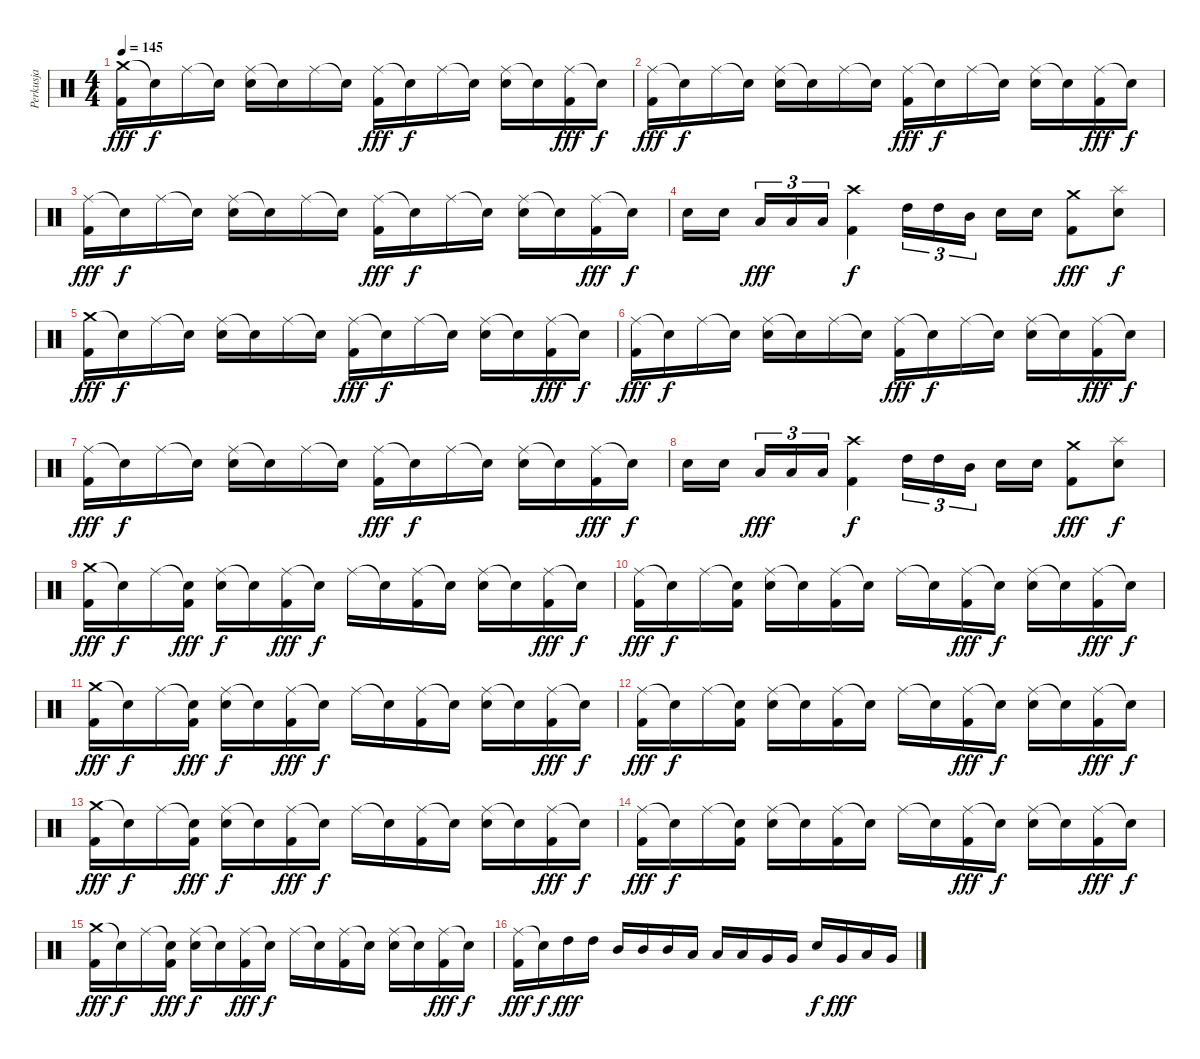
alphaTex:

\track ("Perkusja" "Perkusja") {instrument percussion}
\staff {score}
\articulation defaults
\ts (4 4)
\tempo 145
\clef neutral
\ks c
("Crash medium (hit)" "Kick (hit) 2").16{dy fff} "Snare (hit)"{t}.16{dy f} "Ride (middle)".16 "Snare (hit)"{t}.16 ("Ride (middle)" "Electric Snare (hit)").16 "Snare (hit)"{t}.16 "Ride (middle)".16 "Snare (hit)"{t}.16 ("Ride (middle)" "Kick (hit) 2").16{dy fff} "Snare (hit)"{t}.16{dy f} "Ride (middle)".16 "Snare (hit)"{t}.16 ("Ride (middle)" "Electric Snare (hit)").16 "Snare (hit)"{t}.16 ("Ride (middle)" "Kick (hit) 2").16{dy fff} "Snare (hit)"{t}.16{dy f} |
("Ride (middle)" "Kick (hit) 2").16{dy fff} "Snare (hit)"{t}.16{dy f} "Ride (middle)".16 "Snare (hit)"{t}.16 ("Ride (middle)" "Electric Snare (hit)").16 "Snare (hit)"{t}.16 "Ride (middle)".16 "Snare (hit)"{t}.16 ("Ride (middle)" "Kick (hit) 2").16{dy fff} "Snare (hit)"{t}.16{dy f} "Ride (middle)".16 "Snare (hit)"{t}.16 ("Ride (middle)" "Electric Snare (hit)").16 "Snare (hit)"{t}.16 ("Ride (middle)" "Kick (hit) 2").16{dy fff} "Snare (hit)"{t}.16{dy f} |
("Ride (middle)" "Kick (hit) 2").16{dy fff} "Snare (hit)"{t}.16{dy f} "Ride (middle)".16 "Snare (hit)"{t}.16 ("Ride (middle)" "Electric Snare (hit)").16 "Snare (hit)"{t}.16 "Ride (middle)".16 "Snare (hit)"{t}.16 ("Ride (middle)" "Kick (hit) 2").16{dy fff} "Snare (hit)"{t}.16{dy f} "Ride (middle)".16 "Snare (hit)"{t}.16 ("Ride (middle)" "Electric Snare (hit)").16 "Snare (hit)"{t}.16 ("Ride (middle)" "Kick (hit) 2").16{dy fff} "Snare (hit)"{t}.16{dy f} |
"Electric Snare (hit)".16 "Electric Snare (hit)".16 "Low Tom (hit)".16{tu (3 2) dy fff} "Low Tom (hit)".16{tu (3 2)} "Low Tom (hit)".16{tu (3 2)} ("Crash high (hit)" "Kick (hit) 2").4{dy f} "High Tom (hit)".16{tu (3 2)} "High Tom (hit)".16{tu (3 2)} "Mid Tom (hit)".16{tu (3 2)} "Electric Snare (hit)".16 "Electric Snare (hit)".16 ("Crash medium (hit)" "Kick (hit) 2").8{dy fff} ("Splash (hit)" "Electric Snare (hit)").8{dy f} |
("Crash medium (hit)" "Kick (hit) 2").16{dy fff} "Snare (hit)"{t}.16{dy f} "Ride (middle)".16 "Snare (hit)"{t}.16 ("Ride (middle)" "Electric Snare (hit)").16 "Snare (hit)"{t}.16 "Ride (middle)".16 "Snare (hit)"{t}.16 ("Ride (middle)" "Kick (hit) 2").16{dy fff} "Snare (hit)"{t}.16{dy f} "Ride (middle)".16 "Snare (hit)"{t}.16 ("Ride (middle)" "Electric Snare (hit)").16 "Snare (hit)"{t}.16 ("Ride (middle)" "Kick (hit) 2").16{dy fff} "Snare (hit)"{t}.16{dy f} |
("Ride (middle)" "Kick (hit) 2").16{dy fff} "Snare (hit)"{t}.16{dy f} "Ride (middle)".16 "Snare (hit)"{t}.16 ("Ride (middle)" "Electric Snare (hit)").16 "Snare (hit)"{t}.16 "Ride (middle)".16 "Snare (hit)"{t}.16 ("Ride (middle)" "Kick (hit) 2").16{dy fff} "Snare (hit)"{t}.16{dy f} "Ride (middle)".16 "Snare (hit)"{t}.16 ("Ride (middle)" "Electric Snare (hit)").16 "Snare (hit)"{t}.16 ("Ride (middle)" "Kick (hit) 2").16{dy fff} "Snare (hit)"{t}.16{dy f} |
("Ride (middle)" "Kick (hit) 2").16{dy fff} "Snare (hit)"{t}.16{dy f} "Ride (middle)".16 "Snare (hit)"{t}.16 ("Ride (middle)" "Electric Snare (hit)").16 "Snare (hit)"{t}.16 "Ride (middle)".16 "Snare (hit)"{t}.16 ("Ride (middle)" "Kick (hit) 2").16{dy fff} "Snare (hit)"{t}.16{dy f} "Ride (middle)".16 "Snare (hit)"{t}.16 ("Ride (middle)" "Electric Snare (hit)").16 "Snare (hit)"{t}.16 ("Ride (middle)" "Kick (hit) 2").16{dy fff} "Snare (hit)"{t}.16{dy f} |
"Electric Snare (hit)".16 "Electric Snare (hit)".16 "Low Tom (hit)".16{tu (3 2) dy fff} "Low Tom (hit)".16{tu (3 2)} "Low Tom (hit)".16{tu (3 2)} ("Crash high (hit)" "Kick (hit) 2").4{dy f} "High Tom (hit)".16{tu (3 2)} "High Tom (hit)".16{tu (3 2)} "Mid Tom (hit)".16{tu (3 2)} "Electric Snare (hit)".16 "Electric Snare (hit)".16 ("Crash medium (hit)" "Kick (hit) 2").8{dy fff} ("Splash (hit)" "Electric Snare (hit)").8{dy f} |
("Crash medium (hit)" "Kick (hit) 2").16{dy fff} "Snare (hit)"{t}.16{dy f} "Ride (middle)".16 ("Snare (hit)"{t} "Kick (hit) 2").16{dy fff} ("Ride (middle)" "Electric Snare (hit)").16{dy f} "Snare (hit)"{t}.16 ("Ride (middle)" "Kick (hit) 2").16{dy fff} "Snare (hit)"{t}.16{dy f} "Ride (middle)".16 "Snare (hit)"{t}.16 ("Ride (middle)" "Kick (hit) 2").16 "Snare (hit)"{t}.16 ("Ride (middle)" "Electric Snare (hit)").16 "Snare (hit)"{t}.16 ("Ride (middle)" "Kick (hit) 2").16{dy fff} "Snare (hit)"{t}.16{dy f} |
("Ride (middle)" "Kick (hit) 2").16{dy fff} "Snare (hit)"{t}.16{dy f} "Ride (middle)".16 ("Snare (hit)"{t} "Kick (hit) 2").16 ("Ride (middle)" "Electric Snare (hit)").16 "Snare (hit)"{t}.16 ("Ride (middle)" "Kick (hit) 2").16 "Snare (hit)"{t}.16 "Ride (middle)".16 "Snare (hit)"{t}.16 ("Ride (middle)" "Kick (hit) 2").16{dy fff} "Snare (hit)"{t}.16{dy f} ("Ride (middle)" "Electric Snare (hit)").16 "Snare (hit)"{t}.16 ("Ride (middle)" "Kick (hit) 2").16{dy fff} "Snare (hit)"{t}.16{dy f} |
("Crash medium (hit)" "Kick (hit) 2").16{dy fff} "Snare (hit)"{t}.16{dy f} "Ride (middle)".16 ("Snare (hit)"{t} "Kick (hit) 2").16{dy fff} ("Ride (middle)" "Electric Snare (hit)").16{dy f} "Snare (hit)"{t}.16 ("Ride (middle)" "Kick (hit) 2").16{dy fff} "Snare (hit)"{t}.16{dy f} "Ride (middle)".16 "Snare (hit)"{t}.16 ("Ride (middle)" "Kick (hit) 2").16 "Snare (hit)"{t}.16 ("Ride (middle)" "Electric Snare (hit)").16 "Snare (hit)"{t}.16 ("Ride (middle)" "Kick (hit) 2").16{dy fff} "Snare (hit)"{t}.16{dy f} |
("Ride (middle)" "Kick (hit) 2").16{dy fff} "Snare (hit)"{t}.16{dy f} "Ride (middle)".16 ("Snare (hit)"{t} "Kick (hit) 2").16 ("Ride (middle)" "Electric Snare (hit)").16 "Snare (hit)"{t}.16 ("Ride (middle)" "Kick (hit) 2").16 "Snare (hit)"{t}.16 "Ride (middle)".16 "Snare (hit)"{t}.16 ("Ride (middle)" "Kick (hit) 2").16{dy fff} "Snare (hit)"{t}.16{dy f} ("Ride (middle)" "Electric Snare (hit)").16 "Snare (hit)"{t}.16 ("Ride (middle)" "Kick (hit) 2").16{dy fff} "Snare (hit)"{t}.16{dy f} |
("Crash medium (hit)" "Kick (hit) 2").16{dy fff} "Snare (hit)"{t}.16{dy f} "Ride (middle)".16 ("Snare (hit)"{t} "Kick (hit) 2").16{dy fff} ("Ride (middle)" "Electric Snare (hit)").16{dy f} "Snare (hit)"{t}.16 ("Ride (middle)" "Kick (hit) 2").16{dy fff} "Snare (hit)"{t}.16{dy f} "Ride (middle)".16 "Snare (hit)"{t}.16 ("Ride (middle)" "Kick (hit) 2").16 "Snare (hit)"{t}.16 ("Ride (middle)" "Electric Snare (hit)").16 "Snare (hit)"{t}.16 ("Ride (middle)" "Kick (hit) 2").16{dy fff} "Snare (hit)"{t}.16{dy f} |
("Ride (middle)" "Kick (hit) 2").16{dy fff} "Snare (hit)"{t}.16{dy f} "Ride (middle)".16 ("Snare (hit)"{t} "Kick (hit) 2").16 ("Ride (middle)" "Electric Snare (hit)").16 "Snare (hit)"{t}.16 ("Ride (middle)" "Kick (hit) 2").16 "Snare (hit)"{t}.16 "Ride (middle)".16 "Snare (hit)"{t}.16 ("Ride (middle)" "Kick (hit) 2").16{dy fff} "Snare (hit)"{t}.16{dy f} ("Ride (middle)" "Electric Snare (hit)").16 "Snare (hit)"{t}.16 ("Ride (middle)" "Kick (hit) 2").16{dy fff} "Snare (hit)"{t}.16{dy f} |
("Crash medium (hit)" "Kick (hit) 2").16{dy fff} "Snare (hit)"{t}.16{dy f} "Ride (middle)".16 ("Snare (hit)"{t} "Kick (hit) 2").16{dy fff} ("Ride (middle)" "Electric Snare (hit)").16{dy f} "Snare (hit)"{t}.16 ("Ride (middle)" "Kick (hit) 2").16{dy fff} "Snare (hit)"{t}.16{dy f} "Ride (middle)".16 "Snare (hit)"{t}.16 ("Ride (middle)" "Kick (hit) 2").16 "Snare (hit)"{t}.16 ("Ride (middle)" "Electric Snare (hit)").16 "Snare (hit)"{t}.16 ("Ride (middle)" "Kick (hit) 2").16{dy fff} "Snare (hit)"{t}.16{dy f} |
("Ride (middle)" "Kick (hit) 2").16{dy fff} "Snare (hit)"{t}.16{dy f} "High Tom (hit)".16{dy fff} "High Tom (hit)".16 "Mid Tom (hit)".16 "Mid Tom (hit)".16 "Mid Tom (hit)".16 "Low Tom (hit)".16 "Low Tom (hit)".16 "Low Tom (hit)".16 "Very Low Tom (hit)".16 "Very Low Tom (hit)".16 "Electric Snare (hit)".16{dy f} "Very Low Tom (hit)".16{dy fff} "Low Tom (hit)".16 "Very Low Tom (hit)".16
